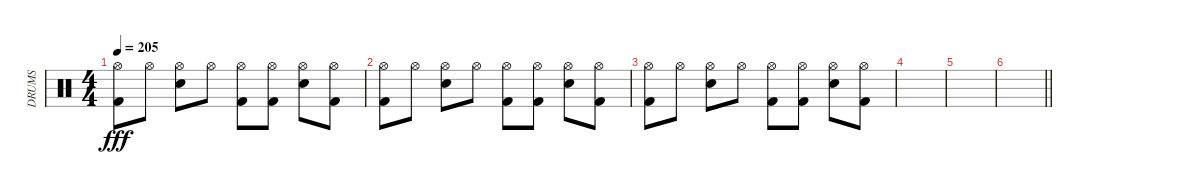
\track ("DRUMS" "DRUMS") {instrument percussion}
\staff {score}
\articulation defaults
\ts (4 4)
\tempo 205
\clef neutral
\ks c
("Hi-Hat (open)" "Kick (hit) 2").8{dy fff} "Hi-Hat (open)".8 ("Hi-Hat (open)" "Electric Snare (hit)").8 "Hi-Hat (open)".8 ("Hi-Hat (open)" "Kick (hit) 2").8 ("Hi-Hat (open)" "Kick (hit) 2").8 ("Hi-Hat (open)" "Electric Snare (hit)").8 ("Hi-Hat (open)" "Kick (hit) 2").8 |
("Hi-Hat (open)" "Kick (hit) 2").8 "Hi-Hat (open)".8 ("Hi-Hat (open)" "Electric Snare (hit)").8 "Hi-Hat (open)".8 ("Hi-Hat (open)" "Kick (hit) 2").8 ("Hi-Hat (open)" "Kick (hit) 2").8 ("Hi-Hat (open)" "Electric Snare (hit)").8 ("Hi-Hat (open)" "Kick (hit) 2").8 |
("Hi-Hat (open)" "Kick (hit) 2").8 "Hi-Hat (open)".8 ("Hi-Hat (open)" "Electric Snare (hit)").8 "Hi-Hat (open)".8 ("Hi-Hat (open)" "Kick (hit) 2").8 ("Hi-Hat (open)" "Kick (hit) 2").8 ("Hi-Hat (open)" "Electric Snare (hit)").8 ("Hi-Hat (open)" "Kick (hit) 2").8 |
|
|
\barLineRight lightlight
